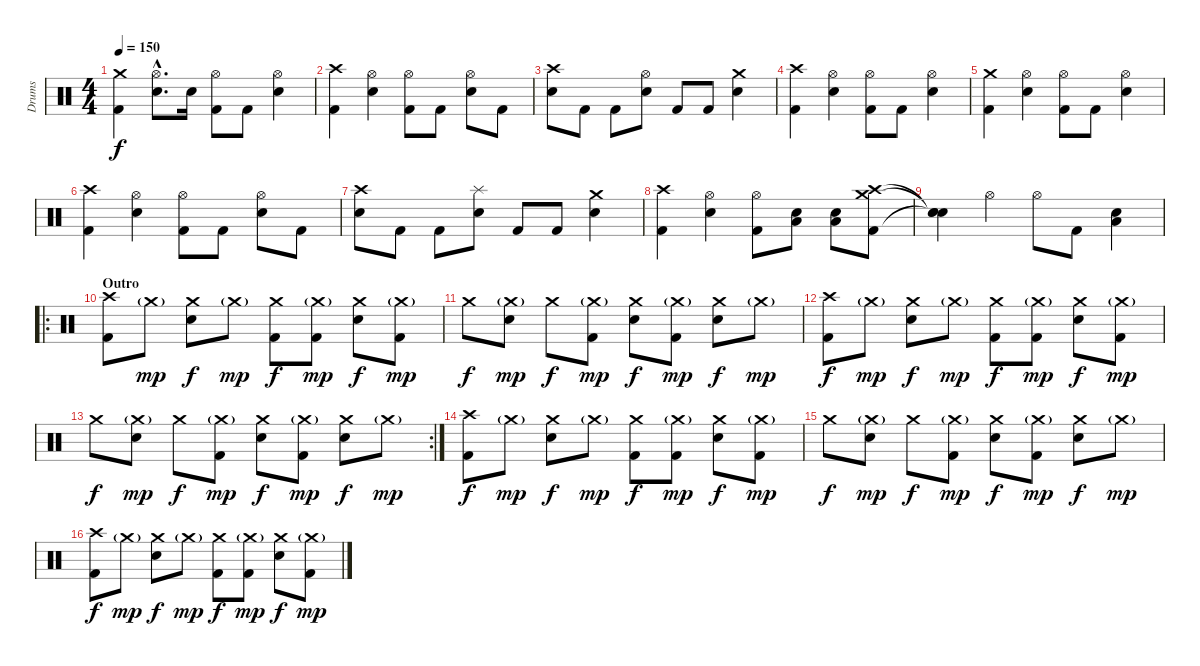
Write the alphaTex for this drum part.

\track ("Drums" "Drums") {instrument percussion}
\staff {score}
\articulation defaults
\ts (4 4)
\tempo 150
\clef neutral
\ks c
("Crash medium (hit)" "Kick (hit) 2").4{dy f} ("Hi-Hat (open)"{hac} "Electric Snare (hit)"{hac}).8{d} "Electric Snare (hit)".16 ("Hi-Hat (open)" "Kick (hit) 2").8 "Kick (hit) 2".8 ("Hi-Hat (open)" "Electric Snare (hit)").4 |
("Crash high (hit)" "Kick (hit) 2").4 ("Hi-Hat (open)" "Electric Snare (hit)").4 ("Hi-Hat (open)" "Kick (hit) 2").8 "Kick (hit) 2".8 ("Hi-Hat (open)" "Electric Snare (hit)").8 "Kick (hit) 2".8 |
("Crash high (hit)" "Electric Snare (hit)").8 "Kick (hit) 2".8 "Kick (hit) 2".8 ("Hi-Hat (open)" "Electric Snare (hit)").8 "Kick (hit) 2".8 "Kick (hit) 2".8 ("Crash medium (hit)" "Electric Snare (hit)").4 |
("Crash high (hit)" "Kick (hit) 2").4 ("Hi-Hat (open)" "Electric Snare (hit)").4 ("Hi-Hat (open)" "Kick (hit) 2").8 "Kick (hit) 2".8 ("Hi-Hat (open)" "Electric Snare (hit)").4 |
("Crash medium (hit)" "Kick (hit) 2").4 ("Hi-Hat (open)" "Electric Snare (hit)").4 ("Hi-Hat (open)" "Kick (hit) 2").8 "Kick (hit) 2".8 ("Hi-Hat (open)" "Electric Snare (hit)").4 |
("Crash high (hit)" "Kick (hit) 2").4 ("Hi-Hat (open)" "Electric Snare (hit)").4 ("Hi-Hat (open)" "Kick (hit) 2").8 "Kick (hit) 2".8 ("Hi-Hat (open)" "Electric Snare (hit)").8 "Kick (hit) 2".8 |
("Crash high (hit)" "Electric Snare (hit)").8 "Kick (hit) 2".8 "Kick (hit) 2".8 ("Splash (hit)" "Electric Snare (hit)").8 "Kick (hit) 2".8 "Kick (hit) 2".8 ("Crash medium (hit)" "Electric Snare (hit)").4 |
("Crash high (hit)" "Kick (hit) 2").4 ("Hi-Hat (open)" "Electric Snare (hit)").4 ("Hi-Hat (open)" "Kick (hit) 2").8 ("Low Floor Tom (hit)" "Electric Snare (hit)").8 ("Low Floor Tom (hit)" "Electric Snare (hit)").8 ("Crash high (hit)" "Kick (hit) 2" "Crash medium (hit)").8 |
("Snare (hit)"{t} "Snare (hit)"{t} "Snare (hit)"{t}).4 "Hi-Hat (open)".4 "Hi-Hat (open)".8 "Kick (hit) 2".8 ("Low Floor Tom (hit)" "Electric Snare (hit)").4 |
\ro
\section ("" "Outro")
("Crash high (hit)" "Kick (hit) 2").8 "Crash medium (hit)"{g}.8{dy mp} ("Crash medium (hit)" "Electric Snare (hit)").8{dy f} "Crash medium (hit)"{g}.8{dy mp} ("Crash medium (hit)" "Kick (hit) 2").8{dy f} ("Crash medium (hit)"{g} "Kick (hit) 2").8{dy mp} ("Crash medium (hit)" "Electric Snare (hit)").8{dy f} ("Crash medium (hit)"{g} "Kick (hit) 2").8{dy mp} |
"Crash medium (hit)".8{dy f} ("Crash medium (hit)"{g} "Electric Snare (hit)").8{dy mp} "Crash medium (hit)".8{dy f} ("Crash medium (hit)"{g} "Kick (hit) 2").8{dy mp} ("Crash medium (hit)" "Electric Snare (hit)").8{dy f} ("Crash medium (hit)"{g} "Kick (hit) 2").8{dy mp} ("Crash medium (hit)" "Electric Snare (hit)").8{dy f} "Crash medium (hit)"{g}.8{dy mp} |
("Crash high (hit)" "Kick (hit) 2").8{dy f} "Crash medium (hit)"{g}.8{dy mp} ("Crash medium (hit)" "Electric Snare (hit)").8{dy f} "Crash medium (hit)"{g}.8{dy mp} ("Crash medium (hit)" "Kick (hit) 2").8{dy f} ("Crash medium (hit)"{g} "Kick (hit) 2").8{dy mp} ("Crash medium (hit)" "Electric Snare (hit)").8{dy f} ("Crash medium (hit)"{g} "Kick (hit) 2").8{dy mp} |
\rc 2 "Crash medium (hit)".8{dy f}
("Crash medium (hit)"{g} "Electric Snare (hit)").8{dy mp} "Crash medium (hit)".8{dy f} ("Crash medium (hit)"{g} "Kick (hit) 2").8{dy mp} ("Crash medium (hit)" "Electric Snare (hit)").8{dy f} ("Crash medium (hit)"{g} "Kick (hit) 2").8{dy mp} ("Crash medium (hit)" "Electric Snare (hit)").8{dy f} "Crash medium (hit)"{g}.8{dy mp} |
("Crash high (hit)" "Kick (hit) 2").8{dy f} "Crash medium (hit)"{g}.8{dy mp} ("Crash medium (hit)" "Electric Snare (hit)").8{dy f} "Crash medium (hit)"{g}.8{dy mp} ("Crash medium (hit)" "Kick (hit) 2").8{dy f} ("Crash medium (hit)"{g} "Kick (hit) 2").8{dy mp} ("Crash medium (hit)" "Electric Snare (hit)").8{dy f} ("Crash medium (hit)"{g} "Kick (hit) 2").8{dy mp} |
"Crash medium (hit)".8{dy f} ("Crash medium (hit)"{g} "Electric Snare (hit)").8{dy mp} "Crash medium (hit)".8{dy f} ("Crash medium (hit)"{g} "Kick (hit) 2").8{dy mp} ("Crash medium (hit)" "Electric Snare (hit)").8{dy f} ("Crash medium (hit)"{g} "Kick (hit) 2").8{dy mp} ("Crash medium (hit)" "Electric Snare (hit)").8{dy f} "Crash medium (hit)"{g}.8{dy mp} |
("Crash high (hit)" "Kick (hit) 2").8{dy f} "Crash medium (hit)"{g}.8{dy mp} ("Crash medium (hit)" "Electric Snare (hit)").8{dy f} "Crash medium (hit)"{g}.8{dy mp} ("Crash medium (hit)" "Kick (hit) 2").8{dy f} ("Crash medium (hit)"{g} "Kick (hit) 2").8{dy mp} ("Crash medium (hit)" "Electric Snare (hit)").8{dy f} ("Crash medium (hit)"{g} "Kick (hit) 2").8{dy mp}
